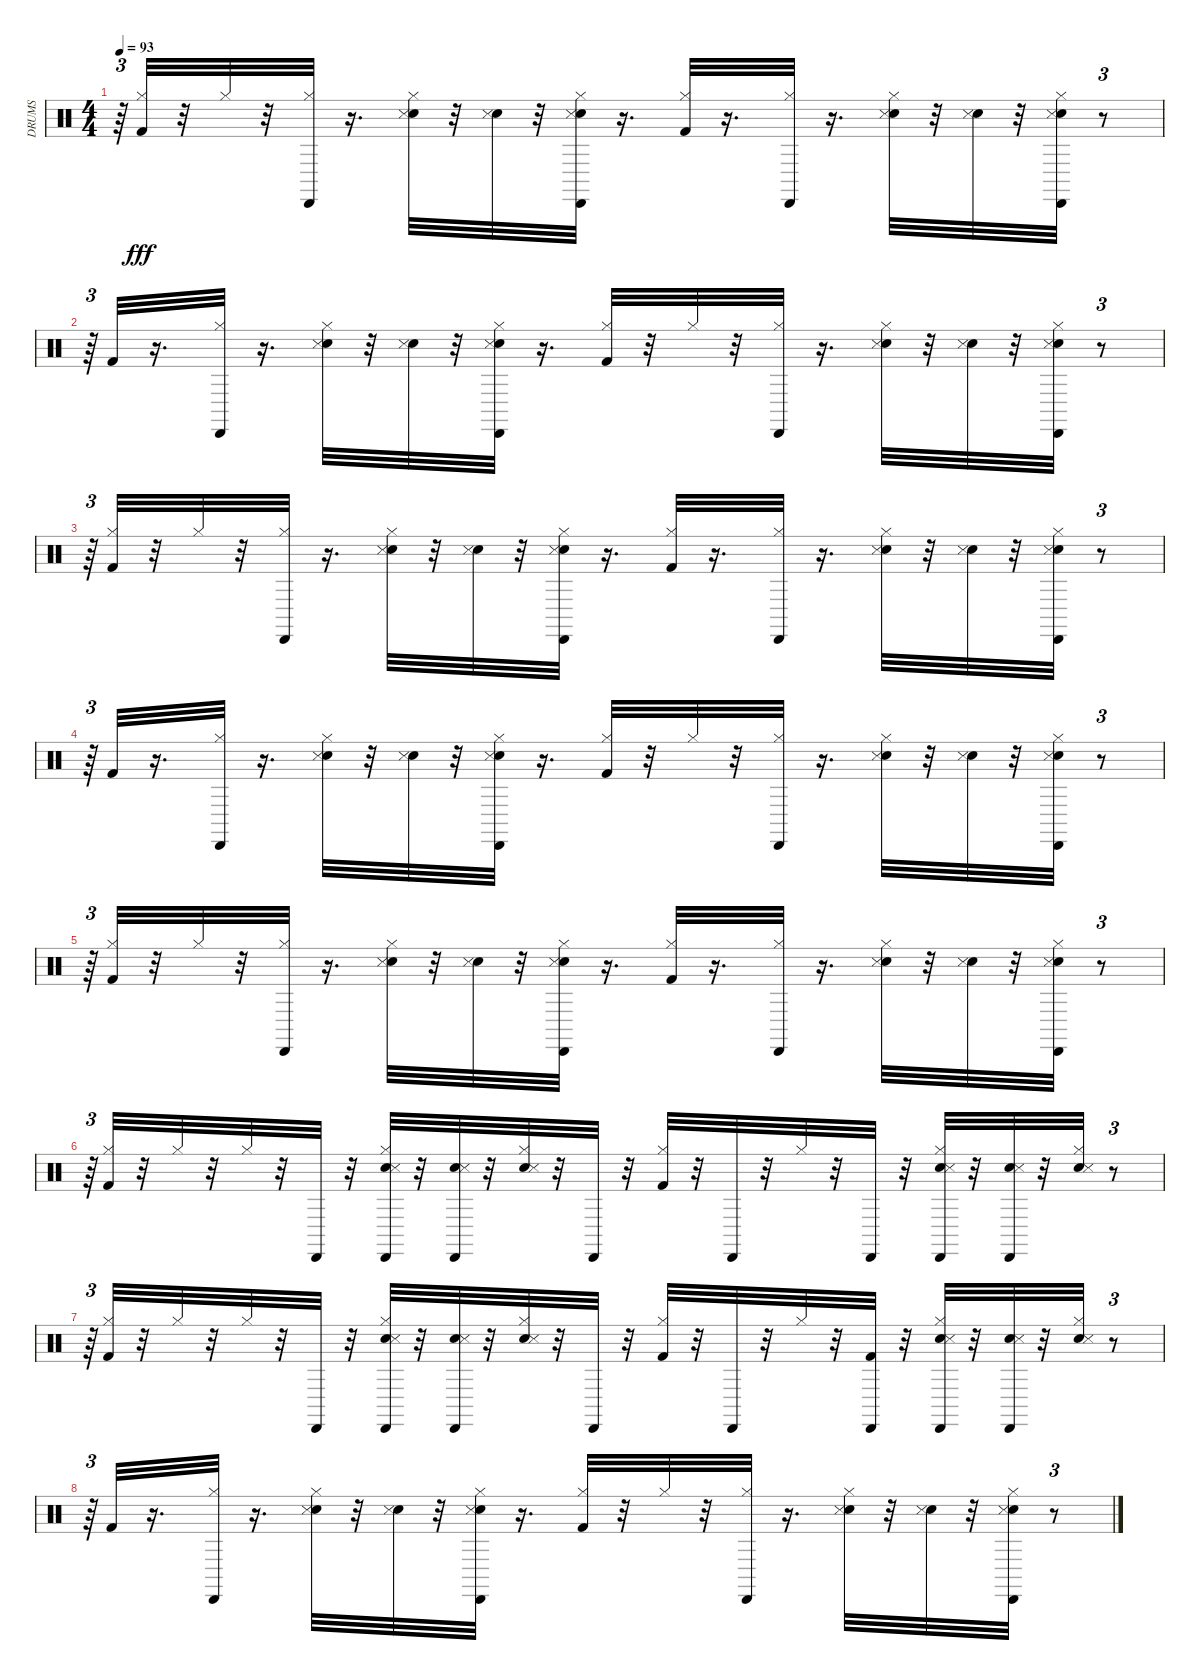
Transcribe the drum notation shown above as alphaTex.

\track ("DRUMS   " "DRUMS   ") {instrument percussion}
\staff {score}
\articulation defaults
\ts (4 4)
\tempo 93
\clef neutral
\ks c
r.64{tu (3 2) dy fff} ("Kick (hit) 2" "Hi-Hat (closed)").32 r.32 "Hi-Hat (closed)".32 r.32 ("Hi-Hat (closed)" "Cabasa (hit)").32 r.16{d} ("Snare (hit) 2" "Hi-Hat (closed)" "Snare (side stick) 3").32 r.32 ("Snare (hit) 2" "Snare (side stick) 3").32 r.32 ("Snare (hit) 2" "Hi-Hat (closed)" "Snare (side stick) 3" "Cabasa (hit)").32 r.16{d} ("Kick (hit) 2" "Hi-Hat (closed)").32 r.16{d} ("Hi-Hat (closed)" "Cabasa (hit)").32 r.16{d} ("Snare (hit) 2" "Hi-Hat (closed)" "Snare (side stick) 3").32 r.32 ("Snare (hit) 2" "Snare (side stick) 3").32 r.32 ("Snare (hit) 2" "Hi-Hat (closed)" "Snare (side stick) 3" "Cabasa (hit)").32 r.8{tu (3 2)} |
r.64{tu (3 2)} "Kick (hit) 2".32 r.16{d} ("Hi-Hat (closed)" "Cabasa (hit)").32 r.16{d} ("Snare (hit) 2" "Hi-Hat (closed)" "Snare (side stick) 3").32 r.32 ("Snare (hit) 2" "Snare (side stick) 3").32 r.32 ("Snare (hit) 2" "Hi-Hat (closed)" "Snare (side stick) 3" "Cabasa (hit)").32 r.16{d} ("Kick (hit) 2" "Hi-Hat (closed)").32 r.32 "Hi-Hat (closed)".32 r.32 ("Hi-Hat (closed)" "Cabasa (hit)").32 r.16{d} ("Snare (hit) 2" "Hi-Hat (closed)" "Snare (side stick) 3").32 r.32 ("Snare (hit) 2" "Snare (side stick) 3").32 r.32 ("Snare (hit) 2" "Hi-Hat (closed)" "Snare (side stick) 3" "Cabasa (hit)").32 r.8{tu (3 2)} |
r.64{tu (3 2)} ("Kick (hit) 2" "Hi-Hat (closed)").32 r.32 "Hi-Hat (closed)".32 r.32 ("Hi-Hat (closed)" "Cabasa (hit)").32 r.16{d} ("Snare (hit) 2" "Hi-Hat (closed)" "Snare (side stick) 3").32 r.32 ("Snare (hit) 2" "Snare (side stick) 3").32 r.32 ("Snare (hit) 2" "Hi-Hat (closed)" "Snare (side stick) 3" "Cabasa (hit)").32 r.16{d} ("Kick (hit) 2" "Hi-Hat (closed)").32 r.16{d} ("Hi-Hat (closed)" "Cabasa (hit)").32 r.16{d} ("Snare (hit) 2" "Hi-Hat (closed)" "Snare (side stick) 3").32 r.32 ("Snare (hit) 2" "Snare (side stick) 3").32 r.32 ("Snare (hit) 2" "Hi-Hat (closed)" "Snare (side stick) 3" "Cabasa (hit)").32 r.8{tu (3 2)} |
r.64{tu (3 2)} "Kick (hit) 2".32 r.16{d} ("Hi-Hat (closed)" "Cabasa (hit)").32 r.16{d} ("Snare (hit) 2" "Hi-Hat (closed)" "Snare (side stick) 3").32 r.32 ("Snare (hit) 2" "Snare (side stick) 3").32 r.32 ("Snare (hit) 2" "Hi-Hat (closed)" "Snare (side stick) 3" "Cabasa (hit)").32 r.16{d} ("Kick (hit) 2" "Hi-Hat (closed)").32 r.32 "Hi-Hat (closed)".32 r.32 ("Hi-Hat (closed)" "Cabasa (hit)").32 r.16{d} ("Snare (hit) 2" "Hi-Hat (closed)" "Snare (side stick) 3").32 r.32 ("Snare (hit) 2" "Snare (side stick) 3").32 r.32 ("Snare (hit) 2" "Hi-Hat (closed)" "Snare (side stick) 3" "Cabasa (hit)").32 r.8{tu (3 2)} |
r.64{tu (3 2)} ("Kick (hit) 2" "Hi-Hat (closed)").32 r.32 "Hi-Hat (closed)".32 r.32 ("Hi-Hat (closed)" "Cabasa (hit)").32 r.16{d} ("Snare (hit) 2" "Hi-Hat (closed)" "Snare (side stick) 3").32 r.32 ("Snare (hit) 2" "Snare (side stick) 3").32 r.32 ("Snare (hit) 2" "Hi-Hat (closed)" "Snare (side stick) 3" "Cabasa (hit)").32 r.16{d} ("Kick (hit) 2" "Hi-Hat (closed)").32 r.16{d} ("Hi-Hat (closed)" "Cabasa (hit)").32 r.16{d} ("Snare (hit) 2" "Hi-Hat (closed)" "Snare (side stick) 3").32 r.32 ("Snare (hit) 2" "Snare (side stick) 3").32 r.32 ("Snare (hit) 2" "Hi-Hat (closed)" "Snare (side stick) 3" "Cabasa (hit)").32 r.8{tu (3 2)} |
r.64{tu (3 2)} ("Kick (hit) 2" "Hi-Hat (closed)").32 r.32 "Hi-Hat (closed)".32 r.32 "Hi-Hat (closed)".32 r.32 "Cabasa (hit)".32 r.32 ("Snare (hit) 2" "Hi-Hat (closed)" "Snare (side stick) 3" "Cabasa (hit)").32 r.32 ("Snare (hit) 2" "Snare (side stick) 3" "Cabasa (hit)").32 r.32 ("Snare (hit) 2" "Hi-Hat (closed)" "Snare (side stick) 3").32 r.32 "Cabasa (hit)".32 r.32 ("Kick (hit) 2" "Hi-Hat (closed)").32 r.32 "Cabasa (hit)".32 r.32 "Hi-Hat (closed)".32 r.32 "Cabasa (hit)".32 r.32 ("Snare (hit) 2" "Hi-Hat (closed)" "Snare (side stick) 3" "Cabasa (hit)").32 r.32 ("Snare (hit) 2" "Snare (side stick) 3" "Cabasa (hit)").32 r.32 ("Snare (hit) 2" "Hi-Hat (closed)" "Snare (side stick) 3").32 r.8{tu (3 2)} |
r.64{tu (3 2)} ("Kick (hit) 2" "Hi-Hat (closed)").32 r.32 "Hi-Hat (closed)".32 r.32 "Hi-Hat (closed)".32 r.32 "Cabasa (hit)".32 r.32 ("Snare (hit) 2" "Hi-Hat (closed)" "Snare (side stick) 3" "Cabasa (hit)").32 r.32 ("Snare (hit) 2" "Snare (side stick) 3" "Cabasa (hit)").32 r.32 ("Snare (hit) 2" "Hi-Hat (closed)" "Snare (side stick) 3").32 r.32 "Cabasa (hit)".32 r.32 ("Kick (hit) 2" "Hi-Hat (closed)").32 r.32 "Cabasa (hit)".32 r.32 "Hi-Hat (closed)".32 r.32 ("Kick (hit) 2" "Cabasa (hit)").32 r.32 ("Snare (hit) 2" "Hi-Hat (closed)" "Snare (side stick) 3" "Cabasa (hit)").32 r.32 ("Snare (hit) 2" "Snare (side stick) 3" "Cabasa (hit)").32 r.32 ("Snare (hit) 2" "Hi-Hat (closed)" "Snare (side stick) 3").32 r.8{tu (3 2)} |
r.64{tu (3 2)} "Kick (hit) 2".32 r.16{d} ("Hi-Hat (closed)" "Cabasa (hit)").32 r.16{d} ("Snare (hit) 2" "Hi-Hat (closed)" "Snare (side stick) 3").32 r.32 ("Snare (hit) 2" "Snare (side stick) 3").32 r.32 ("Snare (hit) 2" "Hi-Hat (closed)" "Snare (side stick) 3" "Cabasa (hit)").32 r.16{d} ("Kick (hit) 2" "Hi-Hat (closed)").32 r.32 "Hi-Hat (closed)".32 r.32 ("Hi-Hat (closed)" "Cabasa (hit)").32 r.16{d} ("Snare (hit) 2" "Hi-Hat (closed)" "Snare (side stick) 3").32 r.32 ("Snare (hit) 2" "Snare (side stick) 3").32 r.32 ("Snare (hit) 2" "Hi-Hat (closed)" "Snare (side stick) 3" "Cabasa (hit)").32 r.8{tu (3 2)}
